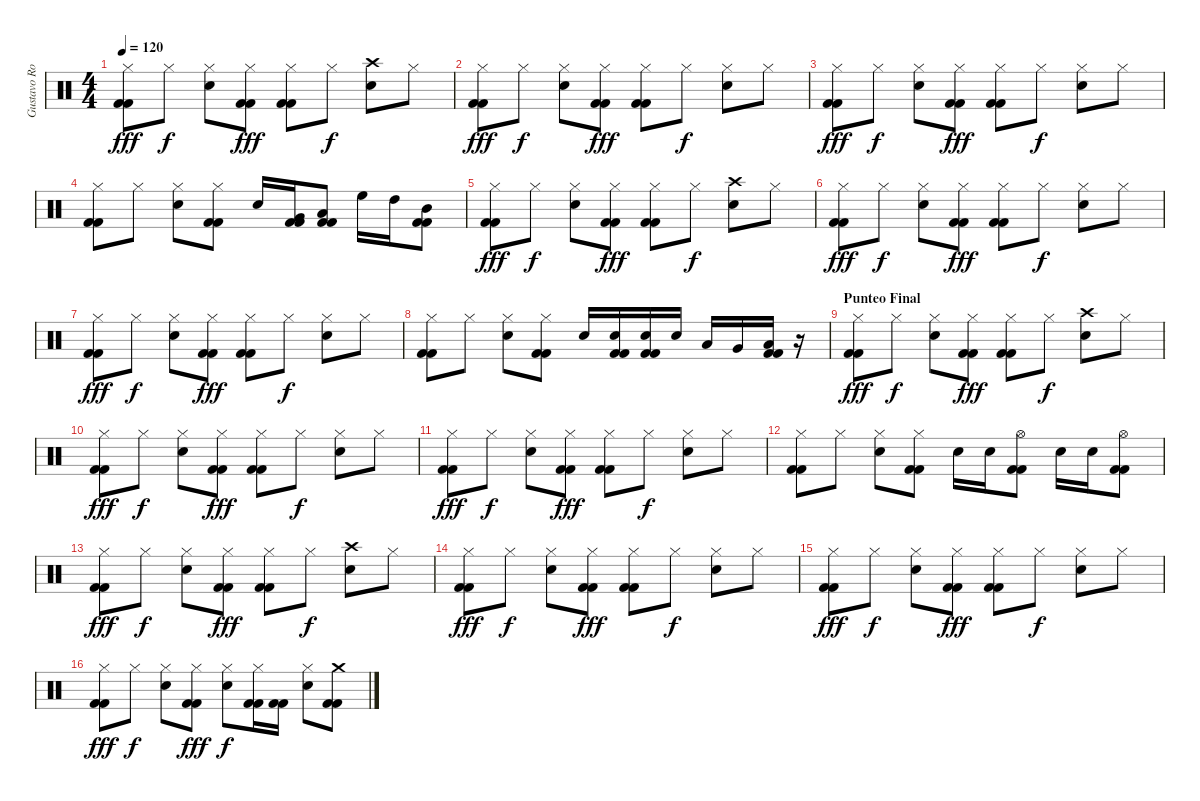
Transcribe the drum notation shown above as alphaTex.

\track ("Gustavo Rowek" "Gustavo Ro") {instrument percussion}
\staff {score}
\articulation defaults
\ts (4 4)
\tempo 120
\clef neutral
\ks c
("Kick (hit) 2" "Kick (hit) 2" "Hi-Hat (closed)").8{dy fff} "Hi-Hat (closed)".8{dy f} ("Snare (hit) 2" "Hi-Hat (closed)").8 ("Kick (hit) 2" "Kick (hit) 2" "Hi-Hat (closed)").8{dy fff} ("Kick (hit) 2" "Kick (hit) 2" "Hi-Hat (closed)").8 "Hi-Hat (closed)".8{dy f} ("Snare (hit) 2" "Crash high (hit)").8 "Hi-Hat (closed)".8 |
("Kick (hit) 2" "Kick (hit) 2" "Hi-Hat (closed)").8{dy fff} "Hi-Hat (closed)".8{dy f} ("Snare (hit) 2" "Hi-Hat (closed)").8 ("Kick (hit) 2" "Kick (hit) 2" "Hi-Hat (closed)").8{dy fff} ("Kick (hit) 2" "Kick (hit) 2" "Hi-Hat (closed)").8 "Hi-Hat (closed)".8{dy f} ("Snare (hit) 2" "Hi-Hat (closed)").8 "Hi-Hat (closed)".8 |
("Kick (hit) 2" "Kick (hit) 2" "Hi-Hat (closed)").8{dy fff} "Hi-Hat (closed)".8{dy f} ("Snare (hit) 2" "Hi-Hat (closed)").8 ("Kick (hit) 2" "Kick (hit) 2" "Hi-Hat (closed)").8{dy fff} ("Kick (hit) 2" "Kick (hit) 2" "Hi-Hat (closed)").8 "Hi-Hat (closed)".8{dy f} ("Snare (hit) 2" "Hi-Hat (closed)").8 "Hi-Hat (closed)".8 |
("Kick (hit) 2" "Kick (hit) 2" "Hi-Hat (closed)").8 "Hi-Hat (closed)".8 ("Snare (hit) 2" "Hi-Hat (closed)").8 ("Kick (hit) 2" "Kick (hit) 2" "Hi-Hat (closed)").8 "Snare (hit) 2".16 ("Kick (hit) 2" "Kick (hit) 2" "Very Low Tom (hit)").16 ("Kick (hit) 2" "Kick (hit) 2" "Low Floor Tom (hit)").8 "High Floor Tom (hit)".16 "High Tom (hit)".16 ("Kick (hit) 2" "Kick (hit) 2" "Mid Tom (hit)").8 |
("Kick (hit) 2" "Kick (hit) 2" "Hi-Hat (closed)").8{dy fff} "Hi-Hat (closed)".8{dy f} ("Snare (hit) 2" "Hi-Hat (closed)").8 ("Kick (hit) 2" "Kick (hit) 2" "Hi-Hat (closed)").8{dy fff} ("Kick (hit) 2" "Kick (hit) 2" "Hi-Hat (closed)").8 "Hi-Hat (closed)".8{dy f} ("Snare (hit) 2" "Crash high (hit)").8 "Hi-Hat (closed)".8 |
("Kick (hit) 2" "Kick (hit) 2" "Hi-Hat (closed)").8{dy fff} "Hi-Hat (closed)".8{dy f} ("Snare (hit) 2" "Hi-Hat (closed)").8 ("Kick (hit) 2" "Kick (hit) 2" "Hi-Hat (closed)").8{dy fff} ("Kick (hit) 2" "Kick (hit) 2" "Hi-Hat (closed)").8 "Hi-Hat (closed)".8{dy f} ("Snare (hit) 2" "Hi-Hat (closed)").8 "Hi-Hat (closed)".8 |
("Kick (hit) 2" "Kick (hit) 2" "Hi-Hat (closed)").8{dy fff} "Hi-Hat (closed)".8{dy f} ("Snare (hit) 2" "Hi-Hat (closed)").8 ("Kick (hit) 2" "Kick (hit) 2" "Hi-Hat (closed)").8{dy fff} ("Kick (hit) 2" "Kick (hit) 2" "Hi-Hat (closed)").8 "Hi-Hat (closed)".8{dy f} ("Snare (hit) 2" "Hi-Hat (closed)").8 "Hi-Hat (closed)".8 |
("Kick (hit) 2" "Kick (hit) 2" "Hi-Hat (closed)").8 "Hi-Hat (closed)".8 ("Snare (hit) 2" "Hi-Hat (closed)").8 ("Kick (hit) 2" "Kick (hit) 2" "Hi-Hat (closed)").8 "Snare (hit) 2".16 ("Kick (hit) 2" "Kick (hit) 2" "Snare (hit) 2").16 ("Kick (hit) 2" "Kick (hit) 2" "Snare (hit) 2").16 "Snare (hit) 2".16 "Low Tom (hit)".16 "Very Low Tom (hit)".16 ("Kick (hit) 2" "Kick (hit) 2" "Low Floor Tom (hit)").16 r.16 |
\section ("" "Punteo Final")
("Kick (hit) 2" "Kick (hit) 2" "Hi-Hat (closed)").8{dy fff} "Hi-Hat (closed)".8{dy f} ("Snare (hit) 2" "Hi-Hat (closed)").8 ("Kick (hit) 2" "Kick (hit) 2" "Hi-Hat (closed)").8{dy fff} ("Kick (hit) 2" "Kick (hit) 2" "Hi-Hat (closed)").8 "Hi-Hat (closed)".8{dy f} ("Snare (hit) 2" "Crash high (hit)").8 "Hi-Hat (closed)".8 |
("Kick (hit) 2" "Kick (hit) 2" "Hi-Hat (closed)").8{dy fff} "Hi-Hat (closed)".8{dy f} ("Snare (hit) 2" "Hi-Hat (closed)").8 ("Kick (hit) 2" "Kick (hit) 2" "Hi-Hat (closed)").8{dy fff} ("Kick (hit) 2" "Kick (hit) 2" "Hi-Hat (closed)").8 "Hi-Hat (closed)".8{dy f} ("Snare (hit) 2" "Hi-Hat (closed)").8 "Hi-Hat (closed)".8 |
("Kick (hit) 2" "Kick (hit) 2" "Hi-Hat (closed)").8{dy fff} "Hi-Hat (closed)".8{dy f} ("Snare (hit) 2" "Hi-Hat (closed)").8 ("Kick (hit) 2" "Kick (hit) 2" "Hi-Hat (closed)").8{dy fff} ("Kick (hit) 2" "Kick (hit) 2" "Hi-Hat (closed)").8 "Hi-Hat (closed)".8{dy f} ("Snare (hit) 2" "Hi-Hat (closed)").8 "Hi-Hat (closed)".8 |
("Kick (hit) 2" "Kick (hit) 2" "Hi-Hat (closed)").8 "Hi-Hat (closed)".8 ("Snare (hit) 2" "Hi-Hat (closed)").8 ("Kick (hit) 2" "Kick (hit) 2" "Hi-Hat (closed)").8 "Snare (hit) 2".16 "Snare (hit) 2".16 ("Kick (hit) 2" "Kick (hit) 2" "Hi-Hat (open)").8 "Snare (hit) 2".16 "Snare (hit) 2".16 ("Kick (hit) 2" "Kick (hit) 2" "Hi-Hat (open)").8 |
("Kick (hit) 2" "Kick (hit) 2" "Hi-Hat (closed)").8{dy fff} "Hi-Hat (closed)".8{dy f} ("Snare (hit) 2" "Hi-Hat (closed)").8 ("Kick (hit) 2" "Kick (hit) 2" "Hi-Hat (closed)").8{dy fff} ("Kick (hit) 2" "Kick (hit) 2" "Hi-Hat (closed)").8 "Hi-Hat (closed)".8{dy f} ("Snare (hit) 2" "Crash high (hit)").8 "Hi-Hat (closed)".8 |
("Kick (hit) 2" "Kick (hit) 2" "Hi-Hat (closed)").8{dy fff} "Hi-Hat (closed)".8{dy f} ("Snare (hit) 2" "Hi-Hat (closed)").8 ("Kick (hit) 2" "Kick (hit) 2" "Hi-Hat (closed)").8{dy fff} ("Kick (hit) 2" "Kick (hit) 2" "Hi-Hat (closed)").8 "Hi-Hat (closed)".8{dy f} ("Snare (hit) 2" "Hi-Hat (closed)").8 "Hi-Hat (closed)".8 |
("Kick (hit) 2" "Kick (hit) 2" "Hi-Hat (closed)").8{dy fff} "Hi-Hat (closed)".8{dy f} ("Snare (hit) 2" "Hi-Hat (closed)").8 ("Kick (hit) 2" "Kick (hit) 2" "Hi-Hat (closed)").8{dy fff} ("Kick (hit) 2" "Kick (hit) 2" "Hi-Hat (closed)").8 "Hi-Hat (closed)".8{dy f} ("Snare (hit) 2" "Hi-Hat (closed)").8 "Hi-Hat (closed)".8 |
("Kick (hit) 2" "Kick (hit) 2" "Hi-Hat (closed)").8{dy fff} "Hi-Hat (closed)".8{dy f} ("Snare (hit) 2" "Hi-Hat (closed)").8 ("Kick (hit) 2" "Kick (hit) 2" "Hi-Hat (closed)").8{dy fff} ("Snare (hit) 2" "Hi-Hat (closed)").8{dy f} ("Kick (hit) 2" "Kick (hit) 2" "Hi-Hat (closed)").16 ("Kick (hit) 2" "Kick (hit) 2").16 ("Snare (hit) 2" "Hi-Hat (closed)").8 ("Kick (hit) 2" "Kick (hit) 2" "Crash medium (hit)").8
